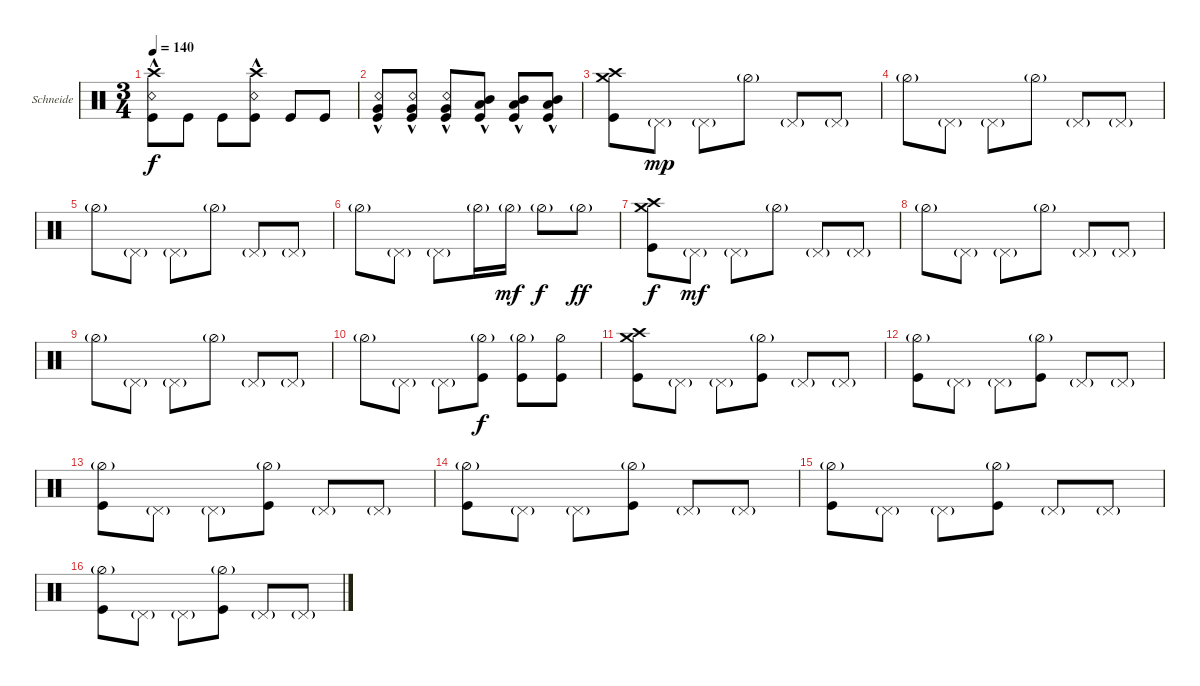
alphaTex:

\bracketExtendMode groupsimilarinstruments
\firstSystemTrackNameOrientation horizontal
\otherSystemsTrackNameOrientation horizontal
\track ("Christoph \"Doom\" Schneider" "Schneide") {instrument percussion}
\staff {score}
\articulation defaults
\ts (3 4)
\tempo 140
\clef neutral
\ks c
("Crash high (hit)" "Kick (hit)" "Snare (rim shot)"{hac}).8{dy f} "Kick (hit)".8 "Kick (hit)".8 ("Crash high (hit)" "Kick (hit)" "Snare (rim shot)"{hac}).8 "Kick (hit)".8 "Kick (hit)".8 |
("Kick (hit)" "Snare (rim shot)"{hac} "Very Low Tom (hit)"{hac}).8 ("Kick (hit)" "Snare (rim shot)"{hac} "Very Low Tom (hit)"{hac}).8 ("Kick (hit)" "Snare (rim shot)"{hac} "Very Low Tom (hit)"{hac}).8 ("Kick (hit)" "Mid Tom (hit)"{hac} "Low Tom (hit)"{hac}).8 ("Kick (hit)" "Mid Tom (hit)"{hac} "Low Tom (hit)"{hac}).8 ("Kick (hit)" "Mid Tom (hit)"{hac} "Low Tom (hit)"{hac}).8 |
("Crash medium (hit)" "Kick (hit)" "Crash high (hit)").8 "Pedal Hi-Hat (hit)"{g}.8{dy mp} "Pedal Hi-Hat (hit)"{g}.8 "Hi-Hat (half)"{g}.8 "Pedal Hi-Hat (hit)"{g}.8 "Pedal Hi-Hat (hit)"{g}.8 |
"Hi-Hat (half)"{g}.8 "Pedal Hi-Hat (hit)"{g}.8 "Pedal Hi-Hat (hit)"{g}.8 "Hi-Hat (half)"{g}.8 "Pedal Hi-Hat (hit)"{g}.8 "Pedal Hi-Hat (hit)"{g}.8 |
"Hi-Hat (half)"{g}.8 "Pedal Hi-Hat (hit)"{g}.8 "Pedal Hi-Hat (hit)"{g}.8 "Hi-Hat (half)"{g}.8 "Pedal Hi-Hat (hit)"{g}.8 "Pedal Hi-Hat (hit)"{g}.8 |
"Hi-Hat (half)"{g}.8 "Pedal Hi-Hat (hit)"{g}.8 "Pedal Hi-Hat (hit)"{g}.8 "Hi-Hat (half)"{g}.16 "Hi-Hat (half)"{g}.16{dy mf} "Hi-Hat (half)"{g}.8{dy f} "Hi-Hat (half)"{g}.8{dy ff} |
("Crash medium (hit)" "Kick (hit)" "Crash high (hit)").8{dy f} "Pedal Hi-Hat (hit)"{g}.8{dy mf} "Pedal Hi-Hat (hit)"{g}.8 "Hi-Hat (half)"{g}.8 "Pedal Hi-Hat (hit)"{g}.8 "Pedal Hi-Hat (hit)"{g}.8 |
"Hi-Hat (half)"{g}.8 "Pedal Hi-Hat (hit)"{g}.8 "Pedal Hi-Hat (hit)"{g}.8 "Hi-Hat (half)"{g}.8 "Pedal Hi-Hat (hit)"{g}.8 "Pedal Hi-Hat (hit)"{g}.8 |
"Hi-Hat (half)"{g}.8 "Pedal Hi-Hat (hit)"{g}.8 "Pedal Hi-Hat (hit)"{g}.8 "Hi-Hat (half)"{g}.8 "Pedal Hi-Hat (hit)"{g}.8 "Pedal Hi-Hat (hit)"{g}.8 |
"Hi-Hat (half)"{g}.8 "Pedal Hi-Hat (hit)"{g}.8 "Pedal Hi-Hat (hit)"{g}.8 ("Hi-Hat (half)"{g} "Kick (hit)").8{dy f} ("Hi-Hat (half)"{g} "Kick (hit)").8 ("Hi-Hat (half)" "Kick (hit)").8 |
("Crash medium (hit)" "Kick (hit)" "Crash high (hit)").8 "Pedal Hi-Hat (hit)"{g}.8 "Pedal Hi-Hat (hit)"{g}.8 ("Hi-Hat (half)"{g} "Kick (hit)").8 "Pedal Hi-Hat (hit)"{g}.8 "Pedal Hi-Hat (hit)"{g}.8 |
("Hi-Hat (half)"{g} "Kick (hit)").8 "Pedal Hi-Hat (hit)"{g}.8 "Pedal Hi-Hat (hit)"{g}.8 ("Hi-Hat (half)"{g} "Kick (hit)").8 "Pedal Hi-Hat (hit)"{g}.8 "Pedal Hi-Hat (hit)"{g}.8 |
("Hi-Hat (half)"{g} "Kick (hit)").8 "Pedal Hi-Hat (hit)"{g}.8 "Pedal Hi-Hat (hit)"{g}.8 ("Hi-Hat (half)"{g} "Kick (hit)").8 "Pedal Hi-Hat (hit)"{g}.8 "Pedal Hi-Hat (hit)"{g}.8 |
("Hi-Hat (half)"{g} "Kick (hit)").8 "Pedal Hi-Hat (hit)"{g}.8 "Pedal Hi-Hat (hit)"{g}.8 ("Hi-Hat (half)"{g} "Kick (hit)").8 "Pedal Hi-Hat (hit)"{g}.8 "Pedal Hi-Hat (hit)"{g}.8 |
("Hi-Hat (half)"{g} "Kick (hit)").8 "Pedal Hi-Hat (hit)"{g}.8 "Pedal Hi-Hat (hit)"{g}.8 ("Hi-Hat (half)"{g} "Kick (hit)").8 "Pedal Hi-Hat (hit)"{g}.8 "Pedal Hi-Hat (hit)"{g}.8 |
("Hi-Hat (half)"{g} "Kick (hit)").8 "Pedal Hi-Hat (hit)"{g}.8 "Pedal Hi-Hat (hit)"{g}.8 ("Hi-Hat (half)"{g} "Kick (hit)").8 "Pedal Hi-Hat (hit)"{g}.8 "Pedal Hi-Hat (hit)"{g}.8
